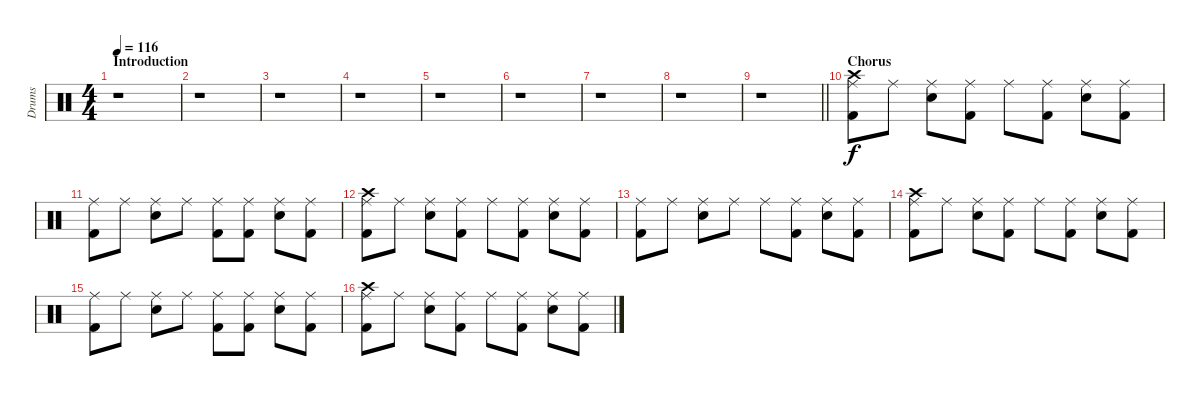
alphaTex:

\track ("Drums" "Drums") {instrument percussion}
\staff {score}
\articulation defaults
\ts (4 4)
\section ("" "Introduction")
\tempo 116
\clef neutral
\ks c
r.1{dy f} |
r.1 |
r.1 |
r.1 |
r.1 |
r.1 |
r.1 |
r.1 |
\barLineRight lightlight
r.1 |
\section ("" "Chorus")
("Crash high (hit)" "Ride (middle)" "Kick (hit) 2").8 "Ride (middle)".8 ("Ride (middle)" "Snare (hit) 2").8 ("Ride (middle)" "Kick (hit) 2").8 "Ride (middle)".8 ("Ride (middle)" "Kick (hit) 2").8 ("Ride (middle)" "Snare (hit) 2").8 ("Ride (middle)" "Kick (hit) 2").8 |
("Ride (middle)" "Kick (hit) 2").8 "Ride (middle)".8 ("Ride (middle)" "Snare (hit) 2").8 "Ride (middle)".8 ("Ride (middle)" "Kick (hit) 2").8 ("Ride (middle)" "Kick (hit) 2").8 ("Ride (middle)" "Snare (hit) 2").8 ("Ride (middle)" "Kick (hit) 2").8 |
("Crash high (hit)" "Ride (middle)" "Kick (hit) 2").8 "Ride (middle)".8 ("Ride (middle)" "Snare (hit) 2").8 ("Ride (middle)" "Kick (hit) 2").8 "Ride (middle)".8 ("Ride (middle)" "Kick (hit) 2").8 ("Ride (middle)" "Snare (hit) 2").8 ("Ride (middle)" "Kick (hit) 2").8 |
("Ride (middle)" "Kick (hit) 2").8 "Ride (middle)".8 ("Ride (middle)" "Snare (hit) 2").8 "Ride (middle)".8 "Ride (middle)".8 ("Ride (middle)" "Kick (hit) 2").8 ("Ride (middle)" "Snare (hit) 2").8 ("Ride (middle)" "Kick (hit) 2").8 |
("Crash high (hit)" "Ride (middle)" "Kick (hit) 2").8 "Ride (middle)".8 ("Ride (middle)" "Snare (hit) 2").8 ("Ride (middle)" "Kick (hit) 2").8 "Ride (middle)".8 ("Ride (middle)" "Kick (hit) 2").8 ("Ride (middle)" "Snare (hit) 2").8 ("Ride (middle)" "Kick (hit) 2").8 |
("Ride (middle)" "Kick (hit) 2").8 "Ride (middle)".8 ("Ride (middle)" "Snare (hit) 2").8 "Ride (middle)".8 ("Ride (middle)" "Kick (hit) 2").8 ("Ride (middle)" "Kick (hit) 2").8 ("Ride (middle)" "Snare (hit) 2").8 ("Ride (middle)" "Kick (hit) 2").8 |
("Crash high (hit)" "Ride (middle)" "Kick (hit) 2").8 "Ride (middle)".8 ("Ride (middle)" "Snare (hit) 2").8 ("Ride (middle)" "Kick (hit) 2").8 "Ride (middle)".8 ("Ride (middle)" "Kick (hit) 2").8 ("Ride (middle)" "Snare (hit) 2").8 ("Ride (middle)" "Kick (hit) 2").8
